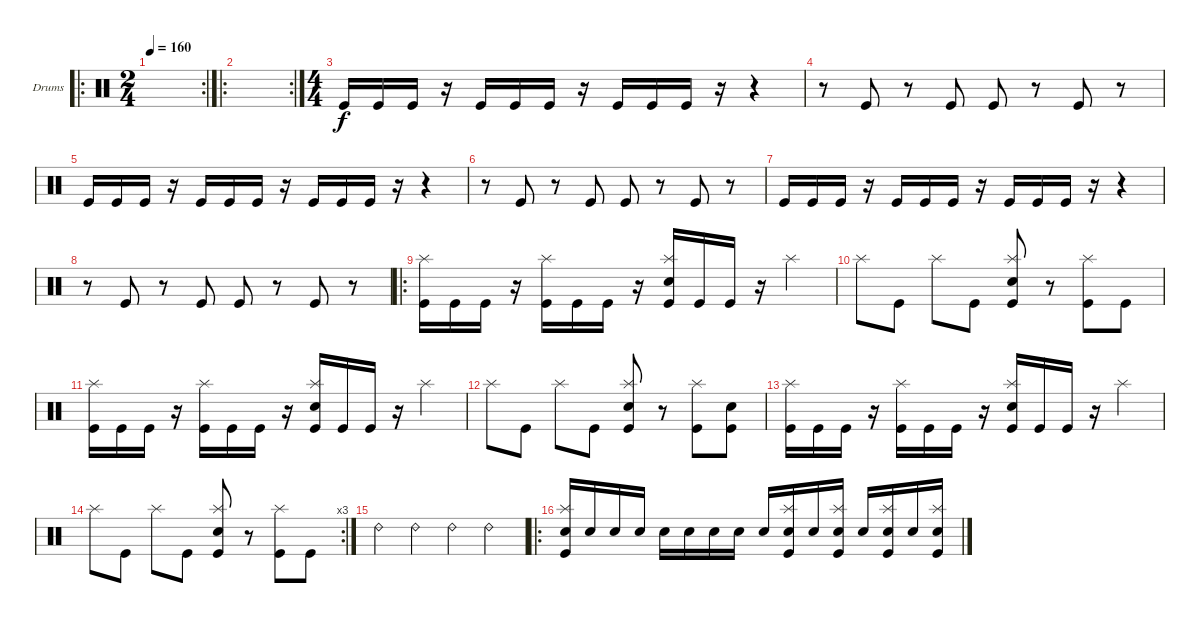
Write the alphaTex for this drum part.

\defaultSystemsLayout 4
\bracketExtendMode groupsimilarinstruments
\firstSystemTrackNameOrientation horizontal
\otherSystemsTrackNameOrientation horizontal
\track ("Drumkit" "Drums") {instrument percussion}
\staff {score}
\articulation defaults
\ro
\rc 2
\ts (2 4)
\tempo 160
\clef neutral
\ks c
|
\ro
\rc 2
|
\ts (4 4)
"Kick (hit)".16 "Kick (hit)".16 "Kick (hit)".16 r.16 "Kick (hit)".16 "Kick (hit)".16 "Kick (hit)".16 r.16 "Kick (hit)".16 "Kick (hit)".16 "Kick (hit)".16 r.16 r.4 |
r.8 "Kick (hit)".8 r.8 "Kick (hit)".8 "Kick (hit)".8 r.8 "Kick (hit)".8 r.8 |
"Kick (hit)".16 "Kick (hit)".16 "Kick (hit)".16 r.16 "Kick (hit)".16 "Kick (hit)".16 "Kick (hit)".16 r.16 "Kick (hit)".16 "Kick (hit)".16 "Kick (hit)".16 r.16 r.4 |
r.8 "Kick (hit)".8 r.8 "Kick (hit)".8 "Kick (hit)".8 r.8 "Kick (hit)".8 r.8 |
"Kick (hit)".16 "Kick (hit)".16 "Kick (hit)".16 r.16 "Kick (hit)".16 "Kick (hit)".16 "Kick (hit)".16 r.16 "Kick (hit)".16 "Kick (hit)".16 "Kick (hit)".16 r.16 r.4 |
r.8 "Kick (hit)".8 r.8 "Kick (hit)".8 "Kick (hit)".8 r.8 "Kick (hit)".8 r.8 |
\ro
("Kick (hit)" "Splash (hit)").16 "Kick (hit)".16 "Kick (hit)".16 r.16 ("Kick (hit)" "Splash (hit)").16 "Kick (hit)".16 "Kick (hit)".16 r.16 ("Kick (hit)" "Splash (hit)" "Snare (hit) 2").16 "Kick (hit)".16 "Kick (hit)".16 r.16 "Splash (hit)".4 |
"Splash (hit)".8 "Kick (hit)".8 "Splash (hit)".8 "Kick (hit)".8 ("Kick (hit)" "Splash (hit)" "Snare (hit) 2").8 r.8 ("Kick (hit)" "Splash (hit)").8 "Kick (hit)".8 |
("Splash (hit)" "Kick (hit)").16 "Kick (hit)".16 "Kick (hit)".16 r.16 ("Kick (hit)" "Splash (hit)").16 "Kick (hit)".16 "Kick (hit)".16 r.16 ("Splash (hit)" "Snare (hit) 2" "Kick (hit)").16 "Kick (hit)".16 "Kick (hit)".16 r.16 "Splash (hit)".4 |
"Splash (hit)".8 "Kick (hit)".8 "Splash (hit)".8 "Kick (hit)".8 ("Kick (hit)" "Splash (hit)" "Snare (hit) 2").8 r.8 ("Kick (hit)" "Splash (hit)").8 ("Kick (hit)" "Snare (hit) 2").8 |
("Kick (hit)" "Splash (hit)").16 "Kick (hit)".16 "Kick (hit)".16 r.16 ("Kick (hit)" "Splash (hit)").16 "Kick (hit)".16 "Kick (hit)".16 r.16 ("Kick (hit)" "Splash (hit)" "Snare (hit) 2").16 "Kick (hit)".16 "Kick (hit)".16 r.16 "Splash (hit)".4 |
\rc 3 "Splash (hit)".8 "Kick (hit)".8 "Splash (hit)".8 "Kick (hit)".8
("Kick (hit)" "Splash (hit)" "Snare (hit) 2").8 r.8 ("Kick (hit)" "Splash (hit)").8 "Kick (hit)".8 |
"Ride (bell) 2".4 "Ride (bell) 2".4 "Ride (bell) 2".4 "Ride (bell) 2".4 |
\ro
("Kick (hit)" "Snare (hit) 2" "Splash (hit)").16 "Snare (hit) 2".16 "Snare (hit) 2".16 "Snare (hit) 2".16 "Snare (hit) 2".16 "Snare (hit) 2".16 "Snare (hit) 2".16 "Snare (hit) 2".16 "Snare (hit) 2".16 ("Snare (hit) 2" "Splash (hit)" "Kick (hit)").16 "Snare (hit) 2".16 ("Snare (hit) 2" "Splash (hit)" "Kick (hit)").16 "Snare (hit) 2".16 ("Snare (hit) 2" "Splash (hit)" "Kick (hit)").16 "Snare (hit) 2".16 ("Snare (hit) 2" "Splash (hit)" "Kick (hit)").16
